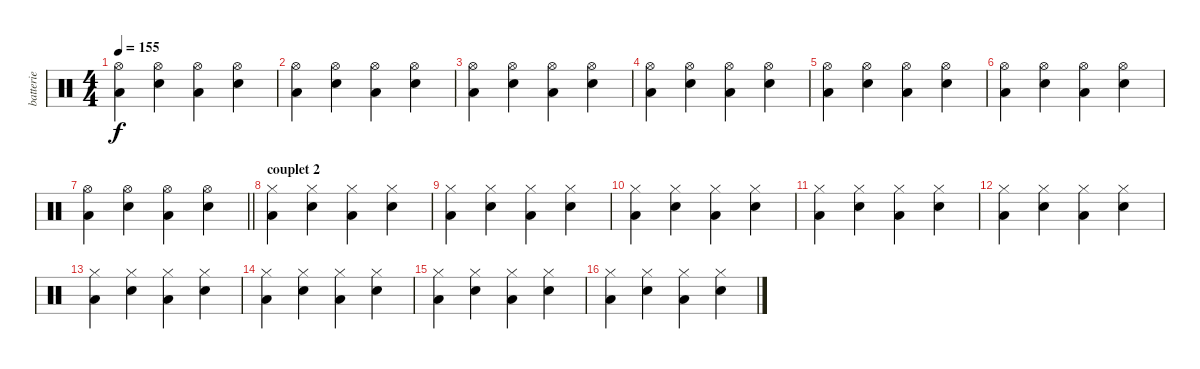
\track ("batterie" "batterie") {instrument percussion}
\staff {score}
\articulation defaults
\ts (4 4)
\tempo 155
\clef neutral
\ks c
("Hi-Hat (open)" "Low Floor Tom (hit)").4{dy f} ("Hi-Hat (open)" "Electric Snare (hit)").4 ("Hi-Hat (open)" "Low Floor Tom (hit)").4 ("Hi-Hat (open)" "Electric Snare (hit)").4 |
("Hi-Hat (open)" "Low Floor Tom (hit)").4 ("Hi-Hat (open)" "Electric Snare (hit)").4 ("Hi-Hat (open)" "Low Floor Tom (hit)").4 ("Hi-Hat (open)" "Electric Snare (hit)").4 |
("Hi-Hat (open)" "Low Floor Tom (hit)").4 ("Hi-Hat (open)" "Electric Snare (hit)").4 ("Hi-Hat (open)" "Low Floor Tom (hit)").4 ("Hi-Hat (open)" "Electric Snare (hit)").4 |
("Hi-Hat (open)" "Low Floor Tom (hit)").4 ("Hi-Hat (open)" "Electric Snare (hit)").4 ("Hi-Hat (open)" "Low Floor Tom (hit)").4 ("Hi-Hat (open)" "Electric Snare (hit)").4 |
("Hi-Hat (open)" "Low Floor Tom (hit)").4 ("Hi-Hat (open)" "Electric Snare (hit)").4 ("Hi-Hat (open)" "Low Floor Tom (hit)").4 ("Hi-Hat (open)" "Electric Snare (hit)").4 |
("Hi-Hat (open)" "Low Floor Tom (hit)").4 ("Hi-Hat (open)" "Electric Snare (hit)").4 ("Hi-Hat (open)" "Low Floor Tom (hit)").4 ("Hi-Hat (open)" "Electric Snare (hit)").4 |
\barLineRight lightlight
("Hi-Hat (open)" "Low Floor Tom (hit)").4 ("Hi-Hat (open)" "Electric Snare (hit)").4 ("Hi-Hat (open)" "Low Floor Tom (hit)").4 ("Hi-Hat (open)" "Electric Snare (hit)").4 |
\section ("" "couplet 2")
("Hi-Hat (closed)" "Low Floor Tom (hit)").4 ("Hi-Hat (closed)" "Electric Snare (hit)").4 ("Hi-Hat (closed)" "Low Floor Tom (hit)").4 ("Hi-Hat (closed)" "Electric Snare (hit)").4 |
("Hi-Hat (closed)" "Low Floor Tom (hit)").4 ("Hi-Hat (closed)" "Electric Snare (hit)").4 ("Hi-Hat (closed)" "Low Floor Tom (hit)").4 ("Hi-Hat (closed)" "Electric Snare (hit)").4 |
("Hi-Hat (closed)" "Low Floor Tom (hit)").4 ("Hi-Hat (closed)" "Electric Snare (hit)").4 ("Hi-Hat (closed)" "Low Floor Tom (hit)").4 ("Hi-Hat (closed)" "Electric Snare (hit)").4 |
("Hi-Hat (closed)" "Low Floor Tom (hit)").4 ("Hi-Hat (closed)" "Electric Snare (hit)").4 ("Hi-Hat (closed)" "Low Floor Tom (hit)").4 ("Hi-Hat (closed)" "Electric Snare (hit)").4 |
("Hi-Hat (closed)" "Low Floor Tom (hit)").4 ("Hi-Hat (closed)" "Electric Snare (hit)").4 ("Hi-Hat (closed)" "Low Floor Tom (hit)").4 ("Hi-Hat (closed)" "Electric Snare (hit)").4 |
("Hi-Hat (closed)" "Low Floor Tom (hit)").4 ("Hi-Hat (closed)" "Electric Snare (hit)").4 ("Hi-Hat (closed)" "Low Floor Tom (hit)").4 ("Hi-Hat (closed)" "Electric Snare (hit)").4 |
("Hi-Hat (closed)" "Low Floor Tom (hit)").4 ("Hi-Hat (closed)" "Electric Snare (hit)").4 ("Hi-Hat (closed)" "Low Floor Tom (hit)").4 ("Hi-Hat (closed)" "Electric Snare (hit)").4 |
("Hi-Hat (closed)" "Low Floor Tom (hit)").4 ("Hi-Hat (closed)" "Electric Snare (hit)").4 ("Hi-Hat (closed)" "Low Floor Tom (hit)").4 ("Hi-Hat (closed)" "Electric Snare (hit)").4 |
("Hi-Hat (closed)" "Low Floor Tom (hit)").4 ("Hi-Hat (closed)" "Electric Snare (hit)").4 ("Hi-Hat (closed)" "Low Floor Tom (hit)").4 ("Hi-Hat (closed)" "Electric Snare (hit)").4
